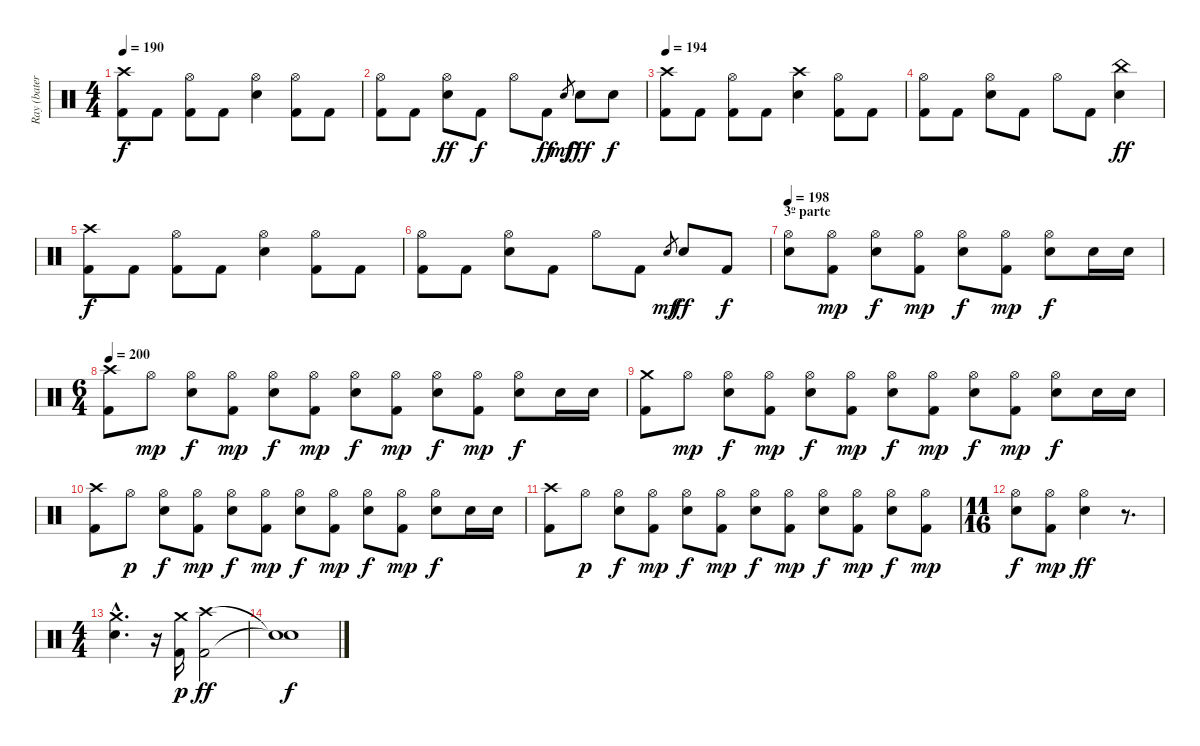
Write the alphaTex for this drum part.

\track ("Ray (batería)" "Ray (bater") {instrument percussion}
\staff {score}
\articulation defaults
\ts (4 4)
\tempo 190
\clef neutral
\ks c
("Crash high (hit)" "Kick (hit) 2").8{dy f} "Kick (hit) 2".8 ("Hi-Hat (open)" "Kick (hit) 2").8 "Kick (hit) 2".8 ("Hi-Hat (open)" "Snare (hit) 2").4 ("Hi-Hat (open)" "Kick (hit) 2").8 "Kick (hit) 2".8 |
("Hi-Hat (open)" "Kick (hit) 2").8 "Kick (hit) 2".8 ("Hi-Hat (open)" "Snare (hit) 2").8{dy ff} "Kick (hit) 2".8{dy f} "Hi-Hat (open)".8 "Kick (hit) 2".8{dy ff} "Snare (hit) 2".8{gr dy mf} "Snare (hit) 2".8{dy fff} "Snare (hit) 2".8{dy f} |
\tempo 194
("Crash high (hit)" "Kick (hit) 2").8 "Kick (hit) 2".8 ("Hi-Hat (open)" "Kick (hit) 2").8 "Kick (hit) 2".8 ("Crash high (hit)" "Snare (hit) 2").4 ("Hi-Hat (open)" "Kick (hit) 2").8 "Kick (hit) 2".8 |
("Hi-Hat (open)" "Kick (hit) 2").8 "Kick (hit) 2".8 ("Hi-Hat (open)" "Snare (hit) 2").8 "Kick (hit) 2".8 "Hi-Hat (open)".8 "Kick (hit) 2".8 ("China (hit)" "Snare (hit) 2").4{dy ff} |
("Crash high (hit)" "Kick (hit) 2").8{dy f} "Kick (hit) 2".8 ("Hi-Hat (open)" "Kick (hit) 2").8 "Kick (hit) 2".8 ("Hi-Hat (open)" "Snare (hit) 2").4 ("Hi-Hat (open)" "Kick (hit) 2").8 "Kick (hit) 2".8 |
("Hi-Hat (open)" "Kick (hit) 2").8 "Kick (hit) 2".8 ("Hi-Hat (open)" "Snare (hit) 2").8 "Kick (hit) 2".8 "Hi-Hat (open)".8 "Kick (hit) 2".8 "Snare (hit) 2".8{gr dy mf} "Snare (hit) 2".8{dy ff} "Kick (hit) 2".8{dy f} |
\section ("" "3º parte")
\tempo 198
("Hi-Hat (open)" "Snare (hit) 2").8 ("Hi-Hat (open)" "Kick (hit) 2").8{dy mp} ("Hi-Hat (open)" "Snare (hit) 2").8{dy f} ("Hi-Hat (open)" "Kick (hit) 2").8{dy mp} ("Hi-Hat (open)" "Snare (hit) 2").8{dy f} ("Hi-Hat (open)" "Kick (hit) 2").8{dy mp} ("Hi-Hat (open)" "Snare (hit) 2").8{dy f} "Snare (hit) 2".16 "Snare (hit) 2".16 |
\ts (6 4)
\tempo 200
("Crash high (hit)" "Kick (hit) 2").8 "Hi-Hat (open)".8{dy mp} ("Hi-Hat (open)" "Snare (hit) 2").8{dy f} ("Hi-Hat (open)" "Kick (hit) 2").8{dy mp} ("Hi-Hat (open)" "Snare (hit) 2").8{dy f} ("Hi-Hat (open)" "Kick (hit) 2").8{dy mp} ("Hi-Hat (open)" "Snare (hit) 2").8{dy f} ("Hi-Hat (open)" "Kick (hit) 2").8{dy mp} ("Hi-Hat (open)" "Snare (hit) 2").8{dy f} ("Hi-Hat (open)" "Kick (hit) 2").8{dy mp} ("Hi-Hat (open)" "Snare (hit) 2").8{dy f} "Snare (hit) 2".16 "Snare (hit) 2".16 |
("Crash medium (hit)" "Kick (hit) 2").8 "Hi-Hat (open)".8{dy mp} ("Hi-Hat (open)" "Snare (hit) 2").8{dy f} ("Hi-Hat (open)" "Kick (hit) 2").8{dy mp} ("Hi-Hat (open)" "Snare (hit) 2").8{dy f} ("Hi-Hat (open)" "Kick (hit) 2").8{dy mp} ("Hi-Hat (open)" "Snare (hit) 2").8{dy f} ("Hi-Hat (open)" "Kick (hit) 2").8{dy mp} ("Hi-Hat (open)" "Snare (hit) 2").8{dy f} ("Hi-Hat (open)" "Kick (hit) 2").8{dy mp} ("Hi-Hat (open)" "Snare (hit) 2").8{dy f} "Snare (hit) 2".16 "Snare (hit) 2".16 |
("Crash high (hit)" "Kick (hit) 2").8 "Hi-Hat (open)".8{dy p} ("Hi-Hat (open)" "Snare (hit) 2").8{dy f} ("Hi-Hat (open)" "Kick (hit) 2").8{dy mp} ("Hi-Hat (open)" "Snare (hit) 2").8{dy f} ("Hi-Hat (open)" "Kick (hit) 2").8{dy mp} ("Hi-Hat (open)" "Snare (hit) 2").8{dy f} ("Hi-Hat (open)" "Kick (hit) 2").8{dy mp} ("Hi-Hat (open)" "Snare (hit) 2").8{dy f} ("Hi-Hat (open)" "Kick (hit) 2").8{dy mp} ("Hi-Hat (open)" "Snare (hit) 2").8{dy f} "Snare (hit) 2".16 "Snare (hit) 2".16 |
("Crash high (hit)" "Kick (hit) 2").8 "Hi-Hat (open)".8{dy p} ("Hi-Hat (open)" "Snare (hit) 2").8{dy f} ("Hi-Hat (open)" "Kick (hit) 2").8{dy mp} ("Hi-Hat (open)" "Snare (hit) 2").8{dy f} ("Hi-Hat (open)" "Kick (hit) 2").8{dy mp} ("Hi-Hat (open)" "Snare (hit) 2").8{dy f} ("Hi-Hat (open)" "Kick (hit) 2").8{dy mp} ("Hi-Hat (open)" "Snare (hit) 2").8{dy f} ("Hi-Hat (open)" "Kick (hit) 2").8{dy mp} ("Hi-Hat (open)" "Snare (hit) 2").8{dy f} ("Hi-Hat (open)" "Kick (hit) 2").8{dy mp} |
\ts (11 16)
("Hi-Hat (open)" "Snare (hit) 2").8{dy f} ("Hi-Hat (open)" "Kick (hit) 2").8{dy mp} ("Hi-Hat (open)" "Snare (hit) 2").4{dy ff} r.8{d} |
\ts (4 4)
("Crash medium (hit)"{hac} "Snare (hit) 2"{hac}).4{d} r.16 ("Crash medium (hit)" "Kick (hit) 2").16{dy p} ("Crash high (hit)" "Kick (hit) 2").2{dy ff} |
("Snare (hit)"{t} "Snare (hit)"{t}).1{dy f}
